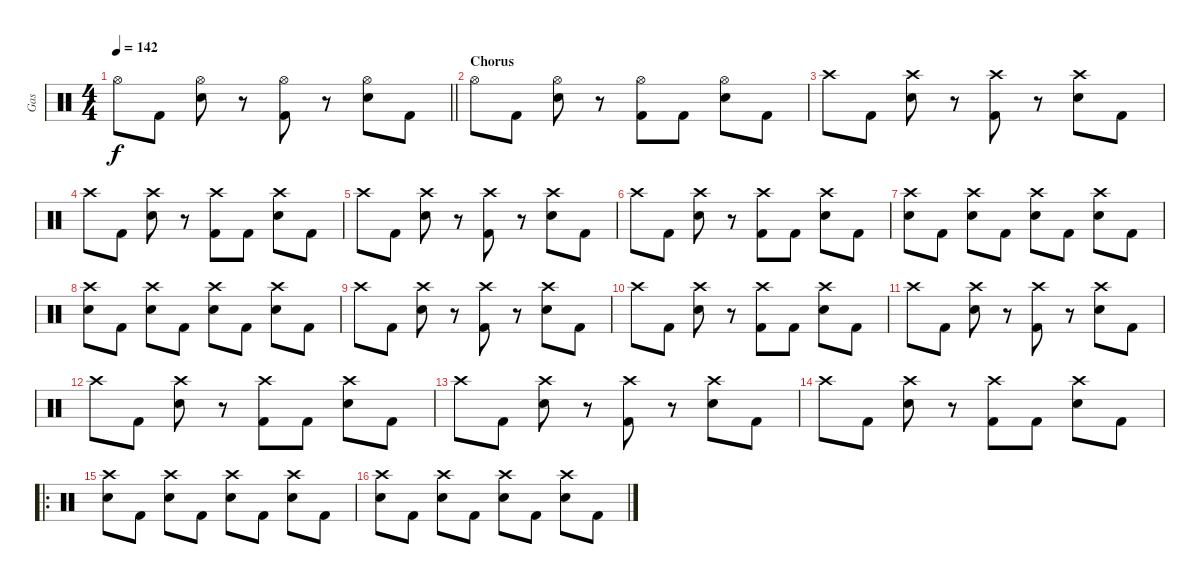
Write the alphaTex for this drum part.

\track ("Gas" "Gas") {instrument percussion}
\staff {score}
\articulation defaults
\ts (4 4)
\tempo 142
\clef neutral
\barLineRight lightlight
\ks c "Hi-Hat (open)".8{dy f} "Kick (hit) 2".8
("Hi-Hat (open)" "Electric Snare (hit)").8 r.8 ("Hi-Hat (open)" "Kick (hit) 2").8 r.8 ("Hi-Hat (open)" "Electric Snare (hit)").8 "Kick (hit) 2".8 |
\section ("" "Chorus")
"Hi-Hat (open)".8 "Kick (hit) 2".8 ("Hi-Hat (open)" "Electric Snare (hit)").8 r.8 ("Hi-Hat (open)" "Kick (hit) 2").8 "Kick (hit) 2".8 ("Hi-Hat (open)" "Electric Snare (hit)").8 "Kick (hit) 2".8 |
"Crash high (hit)".8 "Kick (hit) 2".8 ("Crash high (hit)" "Electric Snare (hit)").8 r.8 ("Crash high (hit)" "Kick (hit) 2").8 r.8 ("Crash high (hit)" "Electric Snare (hit)").8 "Kick (hit) 2".8 |
"Crash high (hit)".8 "Kick (hit) 2".8 ("Crash high (hit)" "Electric Snare (hit)").8 r.8 ("Crash high (hit)" "Kick (hit) 2").8 "Kick (hit) 2".8 ("Crash high (hit)" "Electric Snare (hit)").8 "Kick (hit) 2".8 |
"Crash high (hit)".8 "Kick (hit) 2".8 ("Crash high (hit)" "Electric Snare (hit)").8 r.8 ("Crash high (hit)" "Kick (hit) 2").8 r.8 ("Crash high (hit)" "Electric Snare (hit)").8 "Kick (hit) 2".8 |
"Crash high (hit)".8 "Kick (hit) 2".8 ("Crash high (hit)" "Electric Snare (hit)").8 r.8 ("Crash high (hit)" "Kick (hit) 2").8 "Kick (hit) 2".8 ("Crash high (hit)" "Electric Snare (hit)").8 "Kick (hit) 2".8 |
("Crash high (hit)" "Electric Snare (hit)").8 "Kick (hit) 2".8 ("Crash high (hit)" "Electric Snare (hit)").8 "Kick (hit) 2".8 ("Crash high (hit)" "Electric Snare (hit)").8 "Kick (hit) 2".8 ("Crash high (hit)" "Electric Snare (hit)").8 "Kick (hit) 2".8 |
("Crash high (hit)" "Electric Snare (hit)").8 "Kick (hit) 2".8 ("Crash high (hit)" "Electric Snare (hit)").8 "Kick (hit) 2".8 ("Crash high (hit)" "Electric Snare (hit)").8 "Kick (hit) 2".8 ("Crash high (hit)" "Electric Snare (hit)").8 "Kick (hit) 2".8 |
"Crash high (hit)".8 "Kick (hit) 2".8 ("Crash high (hit)" "Electric Snare (hit)").8 r.8 ("Crash high (hit)" "Kick (hit) 2").8 r.8 ("Crash high (hit)" "Electric Snare (hit)").8 "Kick (hit) 2".8 |
"Crash high (hit)".8 "Kick (hit) 2".8 ("Crash high (hit)" "Electric Snare (hit)").8 r.8 ("Crash high (hit)" "Kick (hit) 2").8 "Kick (hit) 2".8 ("Crash high (hit)" "Electric Snare (hit)").8 "Kick (hit) 2".8 |
"Crash high (hit)".8 "Kick (hit) 2".8 ("Crash high (hit)" "Electric Snare (hit)").8 r.8 ("Crash high (hit)" "Kick (hit) 2").8 r.8 ("Crash high (hit)" "Electric Snare (hit)").8 "Kick (hit) 2".8 |
"Crash high (hit)".8 "Kick (hit) 2".8 ("Crash high (hit)" "Electric Snare (hit)").8 r.8 ("Crash high (hit)" "Kick (hit) 2").8 "Kick (hit) 2".8 ("Crash high (hit)" "Electric Snare (hit)").8 "Kick (hit) 2".8 |
"Crash high (hit)".8 "Kick (hit) 2".8 ("Crash high (hit)" "Electric Snare (hit)").8 r.8 ("Crash high (hit)" "Kick (hit) 2").8 r.8 ("Crash high (hit)" "Electric Snare (hit)").8 "Kick (hit) 2".8 |
"Crash high (hit)".8 "Kick (hit) 2".8 ("Crash high (hit)" "Electric Snare (hit)").8 r.8 ("Crash high (hit)" "Kick (hit) 2").8 "Kick (hit) 2".8 ("Crash high (hit)" "Electric Snare (hit)").8 "Kick (hit) 2".8 |
\ro
("Crash high (hit)" "Electric Snare (hit)").8 "Kick (hit) 2".8 ("Crash high (hit)" "Electric Snare (hit)").8 "Kick (hit) 2".8 ("Crash high (hit)" "Electric Snare (hit)").8 "Kick (hit) 2".8 ("Crash high (hit)" "Electric Snare (hit)").8 "Kick (hit) 2".8 |
("Crash high (hit)" "Electric Snare (hit)").8 "Kick (hit) 2".8 ("Crash high (hit)" "Electric Snare (hit)").8 "Kick (hit) 2".8 ("Crash high (hit)" "Electric Snare (hit)").8 "Kick (hit) 2".8 ("Crash high (hit)" "Electric Snare (hit)").8 "Kick (hit) 2".8
